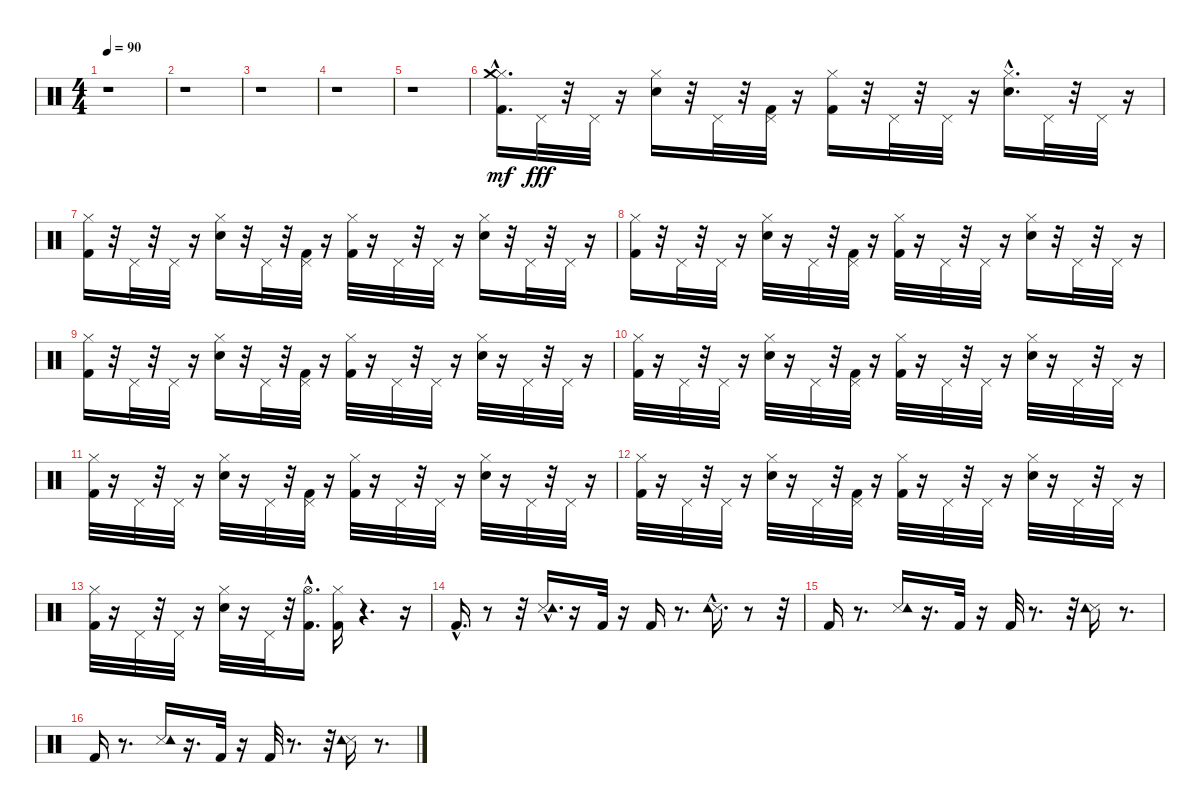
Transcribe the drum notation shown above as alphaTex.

\track "" {instrument percussion}
\staff {score}
\articulation defaults
\ts (4 4)
\tempo 90
\clef neutral
\ks c
r.1{dy mf} |
r.1 |
r.1 |
r.1 |
r.1 |
("Kick (hit) 2"{hac} "Hi-Hat (closed)" "Crash medium (hit)").16{d} "Pedal Hi-Hat (hit)".32{dy fff} r.32 "Pedal Hi-Hat (hit)".32 r.16 ("Snare (hit) 2" "Hi-Hat (closed)").16 r.32 "Pedal Hi-Hat (hit)".32 r.32 ("Kick (hit) 2" "Pedal Hi-Hat (hit)").32 r.16 ("Kick (hit) 2" "Hi-Hat (closed)").16 r.32 "Pedal Hi-Hat (hit)".32 r.32 "Pedal Hi-Hat (hit)".32 r.16 ("Snare (hit) 2"{hac} "Hi-Hat (closed)").16{d} "Pedal Hi-Hat (hit)".32 r.32 "Pedal Hi-Hat (hit)".32 r.16 |
("Kick (hit) 2" "Hi-Hat (closed)").16 r.32 "Pedal Hi-Hat (hit)".32 r.32 "Pedal Hi-Hat (hit)".32 r.16 ("Snare (hit) 2" "Hi-Hat (closed)").16 r.32 "Pedal Hi-Hat (hit)".32 r.32 ("Kick (hit) 2" "Pedal Hi-Hat (hit)").32 r.16 ("Kick (hit) 2" "Hi-Hat (closed)").32 r.16 "Pedal Hi-Hat (hit)".32 r.32 "Pedal Hi-Hat (hit)".32 r.16 ("Snare (hit) 2" "Hi-Hat (closed)").16 r.32 "Pedal Hi-Hat (hit)".32 r.32 "Pedal Hi-Hat (hit)".32 r.16 |
("Kick (hit) 2" "Hi-Hat (closed)").16 r.32 "Pedal Hi-Hat (hit)".32 r.32 "Pedal Hi-Hat (hit)".32 r.16 ("Snare (hit) 2" "Hi-Hat (closed)").32 r.16 "Pedal Hi-Hat (hit)".32 r.32 ("Kick (hit) 2" "Pedal Hi-Hat (hit)").32 r.16 ("Kick (hit) 2" "Hi-Hat (closed)").32 r.16 "Pedal Hi-Hat (hit)".32 r.32 "Pedal Hi-Hat (hit)".32 r.16 ("Snare (hit) 2" "Hi-Hat (closed)").16 r.32 "Pedal Hi-Hat (hit)".32 r.32 "Pedal Hi-Hat (hit)".32 r.16 |
("Kick (hit) 2" "Hi-Hat (closed)").16 r.32 "Pedal Hi-Hat (hit)".32 r.32 "Pedal Hi-Hat (hit)".32 r.16 ("Snare (hit) 2" "Hi-Hat (closed)").16 r.32 "Pedal Hi-Hat (hit)".32 r.32 ("Kick (hit) 2" "Pedal Hi-Hat (hit)").32 r.16 ("Kick (hit) 2" "Hi-Hat (closed)").32 r.16 "Pedal Hi-Hat (hit)".32 r.32 "Pedal Hi-Hat (hit)".32 r.16 ("Snare (hit) 2" "Hi-Hat (closed)").32 r.16 "Pedal Hi-Hat (hit)".32 r.32 "Pedal Hi-Hat (hit)".32 r.16 |
("Kick (hit) 2" "Hi-Hat (closed)").32 r.16 "Pedal Hi-Hat (hit)".32 r.32 "Pedal Hi-Hat (hit)".32 r.16 ("Snare (hit) 2" "Hi-Hat (closed)").32 r.16 "Pedal Hi-Hat (hit)".32 r.32 ("Kick (hit) 2" "Pedal Hi-Hat (hit)").32 r.16 ("Kick (hit) 2" "Hi-Hat (closed)").32 r.16 "Pedal Hi-Hat (hit)".32 r.32 "Pedal Hi-Hat (hit)".32 r.16 ("Snare (hit) 2" "Hi-Hat (closed)").32 r.16 "Pedal Hi-Hat (hit)".32 r.32 "Pedal Hi-Hat (hit)".32 r.16 |
("Kick (hit) 2" "Hi-Hat (closed)").32 r.16 "Pedal Hi-Hat (hit)".32 r.32 "Pedal Hi-Hat (hit)".32 r.16 ("Snare (hit) 2" "Hi-Hat (closed)").32 r.16 "Pedal Hi-Hat (hit)".32 r.32 ("Kick (hit) 2" "Pedal Hi-Hat (hit)").32 r.16 ("Kick (hit) 2" "Hi-Hat (closed)").32 r.16 "Pedal Hi-Hat (hit)".32 r.32 "Pedal Hi-Hat (hit)".32 r.16 ("Snare (hit) 2" "Hi-Hat (closed)").32 r.16 "Pedal Hi-Hat (hit)".32 r.32 "Pedal Hi-Hat (hit)".32 r.16 |
("Kick (hit) 2" "Hi-Hat (closed)").32 r.16 "Pedal Hi-Hat (hit)".32 r.32 "Pedal Hi-Hat (hit)".32 r.16 ("Snare (hit) 2" "Hi-Hat (closed)").32 r.16 "Pedal Hi-Hat (hit)".32 r.32 ("Kick (hit) 2" "Pedal Hi-Hat (hit)").32 r.16 ("Kick (hit) 2" "Hi-Hat (closed)").32 r.16 "Pedal Hi-Hat (hit)".32 r.32 "Pedal Hi-Hat (hit)".32 r.16 ("Snare (hit) 2" "Hi-Hat (closed)").32 r.16 "Pedal Hi-Hat (hit)".32 r.32 "Pedal Hi-Hat (hit)".32 r.16 |
("Kick (hit) 2" "Hi-Hat (closed)").32 r.16 "Pedal Hi-Hat (hit)".32 r.32 "Pedal Hi-Hat (hit)".32 r.16 ("Snare (hit) 2" "Hi-Hat (closed)").32 r.16 "Pedal Hi-Hat (hit)".32 r.32 ("Kick (hit) 2" "Hi-Hat (open)"{hac}).16{d} ("Kick (hit) 2" "Hi-Hat (closed)").16 r.4{d} r.16 |
"Kick (hit) 2"{hac}.16{d} r.8 r.32 ("Snare (side stick) 3" "Tambourine (hit)"{hac}).16{d} r.16 "Kick (hit) 2".32 r.16 "Kick (hit) 2".16 r.8{d} ("Snare (side stick) 3"{hac} "Tambourine (hit)").16{d} r.8 r.32 |
"Kick (hit) 2".16 r.8{d} ("Snare (side stick) 3" "Tambourine (hit)").16 r.16{d} "Kick (hit) 2".32 r.16 "Kick (hit) 2".32 r.8{d} r.32 ("Snare (side stick) 3" "Tambourine (hit)").16 r.8{d} |
"Kick (hit) 2".16 r.8{d} ("Snare (side stick) 3" "Tambourine (hit)").16 r.16{d} "Kick (hit) 2".32 r.16 "Kick (hit) 2".32 r.8{d} r.32 ("Snare (side stick) 3" "Tambourine (hit)").16 r.8{d}
